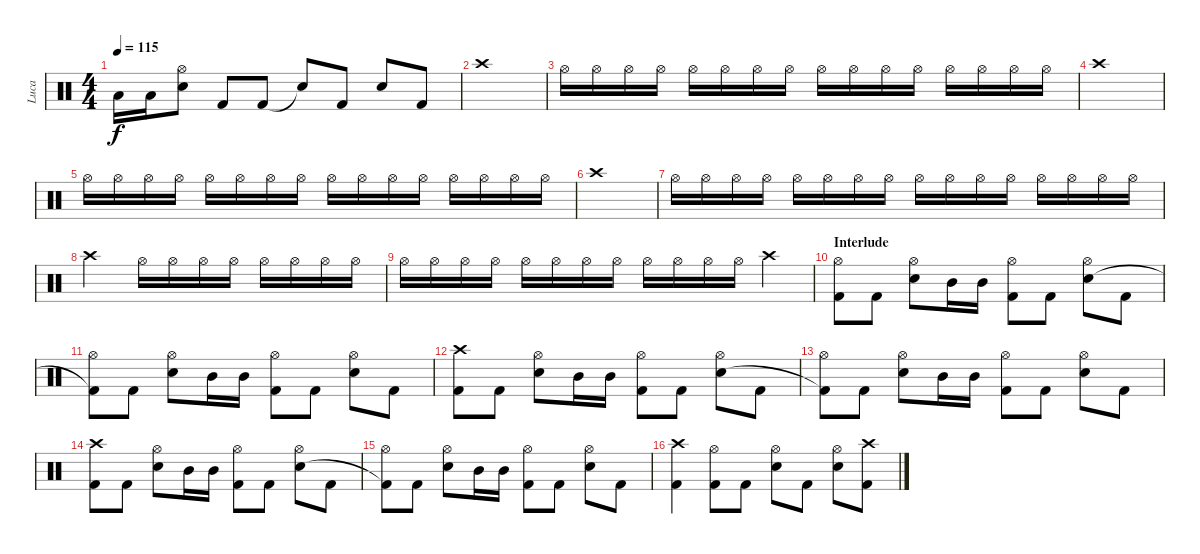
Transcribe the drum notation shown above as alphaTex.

\track ("Luca" "Luca") {instrument percussion}
\staff {score}
\articulation defaults
\ts (4 4)
\tempo 115
\clef neutral
\ks c "Low Floor Tom (hit)".16{dy f} "Low Floor Tom (hit)".16
("Hi-Hat (open)" "Snare (hit) 2").8 "Kick (hit) 2".8 "Kick (hit) 2".8 "Snare (hit)"{t}.8 "Kick (hit) 2".8 "Snare (hit) 2".8 "Kick (hit) 2".8 |
"Crash high (hit)".1 |
"Hi-Hat (open)".16 "Hi-Hat (open)".16 "Hi-Hat (open)".16 "Hi-Hat (open)".16 "Hi-Hat (open)".16 "Hi-Hat (open)".16 "Hi-Hat (open)".16 "Hi-Hat (open)".16 "Hi-Hat (open)".16 "Hi-Hat (open)".16 "Hi-Hat (open)".16 "Hi-Hat (open)".16 "Hi-Hat (open)".16 "Hi-Hat (open)".16 "Hi-Hat (open)".16 "Hi-Hat (open)".16 |
"Crash high (hit)".1 |
"Hi-Hat (open)".16 "Hi-Hat (open)".16 "Hi-Hat (open)".16 "Hi-Hat (open)".16 "Hi-Hat (open)".16 "Hi-Hat (open)".16 "Hi-Hat (open)".16 "Hi-Hat (open)".16 "Hi-Hat (open)".16 "Hi-Hat (open)".16 "Hi-Hat (open)".16 "Hi-Hat (open)".16 "Hi-Hat (open)".16 "Hi-Hat (open)".16 "Hi-Hat (open)".16 "Hi-Hat (open)".16 |
"Crash high (hit)".1 |
"Hi-Hat (open)".16 "Hi-Hat (open)".16 "Hi-Hat (open)".16 "Hi-Hat (open)".16 "Hi-Hat (open)".16 "Hi-Hat (open)".16 "Hi-Hat (open)".16 "Hi-Hat (open)".16 "Hi-Hat (open)".16 "Hi-Hat (open)".16 "Hi-Hat (open)".16 "Hi-Hat (open)".16 "Hi-Hat (open)".16 "Hi-Hat (open)".16 "Hi-Hat (open)".16 "Hi-Hat (open)".16 |
"Crash high (hit)".2 "Hi-Hat (open)".16 "Hi-Hat (open)".16 "Hi-Hat (open)".16 "Hi-Hat (open)".16 "Hi-Hat (open)".16 "Hi-Hat (open)".16 "Hi-Hat (open)".16 "Hi-Hat (open)".16 |
"Hi-Hat (open)".16 "Hi-Hat (open)".16 "Hi-Hat (open)".16 "Hi-Hat (open)".16 "Hi-Hat (open)".16 "Hi-Hat (open)".16 "Hi-Hat (open)".16 "Hi-Hat (open)".16 "Hi-Hat (open)".16 "Hi-Hat (open)".16 "Hi-Hat (open)".16 "Hi-Hat (open)".16 "Crash high (hit)".4 |
\section ("" "Interlude")
("Hi-Hat (open)" "Kick (hit) 2").8 "Kick (hit) 2".8 ("Hi-Hat (open)" "Snare (hit) 2").8 "Mid Tom (hit)".16 "Mid Tom (hit)".16 ("Hi-Hat (open)" "Kick (hit) 2").8 "Kick (hit) 2".8 ("Hi-Hat (open)" "Snare (hit) 2").8 "Kick (hit) 2".8 |
("Hi-Hat (open)" "Kick (hit) 2"{t}).8 "Kick (hit) 2".8 ("Hi-Hat (open)" "Snare (hit) 2").8 "Mid Tom (hit)".16 "Mid Tom (hit)".16 ("Hi-Hat (open)" "Kick (hit) 2").8 "Kick (hit) 2".8 ("Hi-Hat (open)" "Snare (hit) 2").8 "Kick (hit) 2".8 |
("Crash high (hit)" "Kick (hit) 2").8 "Kick (hit) 2".8 ("Hi-Hat (open)" "Snare (hit) 2").8 "Mid Tom (hit)".16 "Mid Tom (hit)".16 ("Hi-Hat (open)" "Kick (hit) 2").8 "Kick (hit) 2".8 ("Hi-Hat (open)" "Snare (hit) 2").8 "Kick (hit) 2".8 |
("Hi-Hat (open)" "Kick (hit) 2"{t}).8 "Kick (hit) 2".8 ("Hi-Hat (open)" "Snare (hit) 2").8 "Mid Tom (hit)".16 "Mid Tom (hit)".16 ("Hi-Hat (open)" "Kick (hit) 2").8 "Kick (hit) 2".8 ("Hi-Hat (open)" "Snare (hit) 2").8 "Kick (hit) 2".8 |
("Crash high (hit)" "Kick (hit) 2").8 "Kick (hit) 2".8 ("Hi-Hat (open)" "Snare (hit) 2").8 "Mid Tom (hit)".16 "Mid Tom (hit)".16 ("Hi-Hat (open)" "Kick (hit) 2").8 "Kick (hit) 2".8 ("Hi-Hat (open)" "Snare (hit) 2").8 "Kick (hit) 2".8 |
("Hi-Hat (open)" "Kick (hit) 2"{t}).8 "Kick (hit) 2".8 ("Hi-Hat (open)" "Snare (hit) 2").8 "Mid Tom (hit)".16 "Mid Tom (hit)".16 ("Hi-Hat (open)" "Kick (hit) 2").8 "Kick (hit) 2".8 ("Hi-Hat (open)" "Snare (hit) 2").8 "Kick (hit) 2".8 |
("Crash high (hit)" "Kick (hit) 2").4 ("Hi-Hat (open)" "Kick (hit) 2").8 "Kick (hit) 2".8 ("Hi-Hat (open)" "Snare (hit) 2").8 "Kick (hit) 2".8 ("Hi-Hat (open)" "Snare (hit) 2").8 ("Crash high (hit)" "Kick (hit) 2").8
